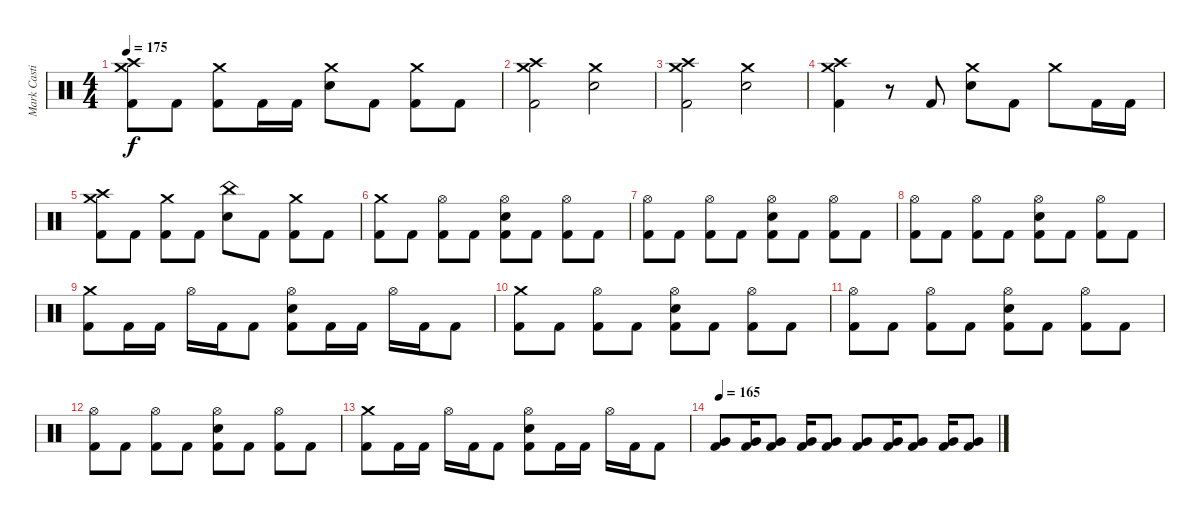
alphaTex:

\track ("Mark Castillo" "Mark Casti") {instrument percussion}
\staff {score}
\articulation defaults
\ts (4 4)
\tempo 175
\clef neutral
\ks c
("Kick (hit) 2" "Crash medium (hit)" "Crash high (hit)").8{dy f} "Kick (hit) 2".8 ("Kick (hit) 2" "Crash medium (hit)").8 "Kick (hit) 2".16 "Kick (hit) 2".16 ("Electric Snare (hit)" "Crash medium (hit)").8 "Kick (hit) 2".8 ("Kick (hit) 2" "Crash medium (hit)").8 "Kick (hit) 2".8 |
("Kick (hit) 2" "Crash medium (hit)" "Crash high (hit)").2 ("Electric Snare (hit)" "Crash medium (hit)").2 |
("Kick (hit) 2" "Crash medium (hit)" "Crash high (hit)").2 ("Electric Snare (hit)" "Crash medium (hit)").2 |
("Kick (hit) 2" "Crash medium (hit)" "Crash high (hit)").4 r.8 "Kick (hit) 2".8 ("Electric Snare (hit)" "Crash medium (hit)").8 "Kick (hit) 2".8 "Crash medium (hit)".8 "Kick (hit) 2".16 "Kick (hit) 2".16 |
("Kick (hit) 2" "Crash medium (hit)" "Crash high (hit)").8 "Kick (hit) 2".8 ("Kick (hit) 2" "Crash medium (hit)").8 "Kick (hit) 2".8 ("Electric Snare (hit)" "China (hit)").8 "Kick (hit) 2".8 ("Kick (hit) 2" "Crash medium (hit)").8 "Kick (hit) 2".8 |
("Kick (hit) 2" "Crash medium (hit)").8 "Kick (hit) 2".8 ("Kick (hit) 2" "Hi-Hat (open)").8 "Kick (hit) 2".8 ("Kick (hit) 2" "Electric Snare (hit)" "Hi-Hat (open)").8 "Kick (hit) 2".8 ("Kick (hit) 2" "Hi-Hat (open)").8 "Kick (hit) 2".8 |
("Kick (hit) 2" "Hi-Hat (open)").8 "Kick (hit) 2".8 ("Kick (hit) 2" "Hi-Hat (open)").8 "Kick (hit) 2".8 ("Kick (hit) 2" "Electric Snare (hit)" "Hi-Hat (open)").8 "Kick (hit) 2".8 ("Kick (hit) 2" "Hi-Hat (open)").8 "Kick (hit) 2".8 |
("Kick (hit) 2" "Hi-Hat (open)").8 "Kick (hit) 2".8 ("Kick (hit) 2" "Hi-Hat (open)").8 "Kick (hit) 2".8 ("Kick (hit) 2" "Electric Snare (hit)" "Hi-Hat (open)").8 "Kick (hit) 2".8 ("Kick (hit) 2" "Hi-Hat (open)").8 "Kick (hit) 2".8 |
("Kick (hit) 2" "Crash medium (hit)").8 "Kick (hit) 2".16 "Kick (hit) 2".16 "Hi-Hat (open)".16 "Kick (hit) 2".16 "Kick (hit) 2".8 ("Kick (hit) 2" "Electric Snare (hit)" "Hi-Hat (open)").8 "Kick (hit) 2".16 "Kick (hit) 2".16 "Hi-Hat (open)".16 "Kick (hit) 2".16 "Kick (hit) 2".8 |
("Kick (hit) 2" "Crash medium (hit)").8 "Kick (hit) 2".8 ("Kick (hit) 2" "Hi-Hat (open)").8 "Kick (hit) 2".8 ("Kick (hit) 2" "Electric Snare (hit)" "Hi-Hat (open)").8 "Kick (hit) 2".8 ("Kick (hit) 2" "Hi-Hat (open)").8 "Kick (hit) 2".8 |
("Kick (hit) 2" "Hi-Hat (open)").8 "Kick (hit) 2".8 ("Kick (hit) 2" "Hi-Hat (open)").8 "Kick (hit) 2".8 ("Kick (hit) 2" "Electric Snare (hit)" "Hi-Hat (open)").8 "Kick (hit) 2".8 ("Kick (hit) 2" "Hi-Hat (open)").8 "Kick (hit) 2".8 |
("Kick (hit) 2" "Hi-Hat (open)").8 "Kick (hit) 2".8 ("Kick (hit) 2" "Hi-Hat (open)").8 "Kick (hit) 2".8 ("Kick (hit) 2" "Electric Snare (hit)" "Hi-Hat (open)").8 "Kick (hit) 2".8 ("Kick (hit) 2" "Hi-Hat (open)").8 "Kick (hit) 2".8 |
("Kick (hit) 2" "Crash medium (hit)").8 "Kick (hit) 2".16 "Kick (hit) 2".16 "Hi-Hat (open)".16 "Kick (hit) 2".16 "Kick (hit) 2".8 ("Kick (hit) 2" "Electric Snare (hit)" "Hi-Hat (open)").8 "Kick (hit) 2".16 "Kick (hit) 2".16 "Hi-Hat (open)".16 "Kick (hit) 2".16 "Kick (hit) 2".8 |
\tempo 165
("Kick (hit) 2" "Very Low Tom (hit)").8 ("Kick (hit) 2" "Very Low Tom (hit)").16 ("Kick (hit) 2" "Very Low Tom (hit)").8 ("Kick (hit) 2" "Very Low Tom (hit)").16 ("Kick (hit) 2" "Very Low Tom (hit)").8 ("Kick (hit) 2" "Very Low Tom (hit)").8 ("Kick (hit) 2" "Very Low Tom (hit)").16 ("Kick (hit) 2" "Very Low Tom (hit)").8 ("Kick (hit) 2" "Very Low Tom (hit)").16 ("Kick (hit) 2" "Very Low Tom (hit)").8
